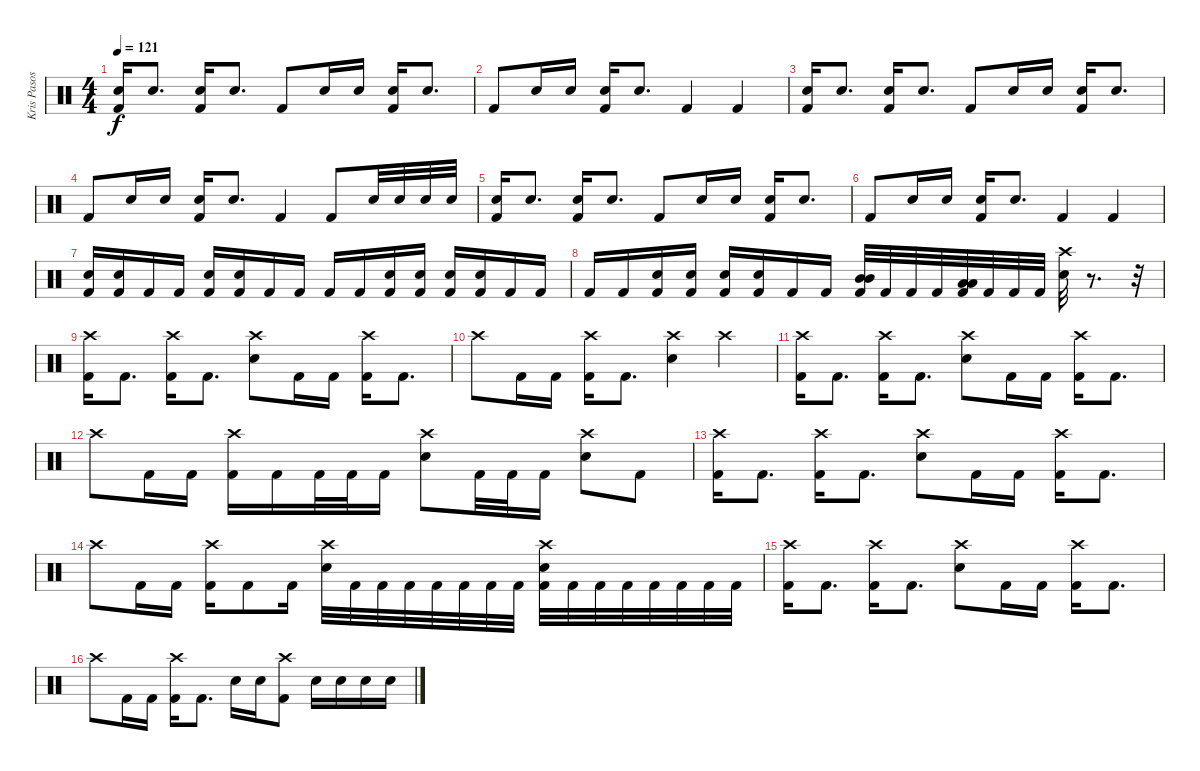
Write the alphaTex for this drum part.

\track ("Kris Pasos" "Kris Pasos") {instrument percussion}
\staff {score}
\articulation defaults
\ts (4 4)
\tempo 121
\clef neutral
\ks c
("Snare (hit) 2" "Kick (hit) 2").16{dy f} "Snare (hit) 2".8{d} ("Snare (hit) 2" "Kick (hit) 2").16 "Snare (hit) 2".8{d} "Kick (hit) 2".8 "Snare (hit) 2".16 "Snare (hit) 2".16 ("Snare (hit) 2" "Kick (hit) 2").16 "Snare (hit) 2".8{d} |
"Kick (hit) 2".8 "Snare (hit) 2".16 "Snare (hit) 2".16 ("Snare (hit) 2" "Kick (hit) 2").16 "Snare (hit) 2".8{d} "Kick (hit) 2".4 "Kick (hit) 2".4 |
("Snare (hit) 2" "Kick (hit) 2").16 "Snare (hit) 2".8{d} ("Snare (hit) 2" "Kick (hit) 2").16 "Snare (hit) 2".8{d} "Kick (hit) 2".8 "Snare (hit) 2".16 "Snare (hit) 2".16 ("Snare (hit) 2" "Kick (hit) 2").16 "Snare (hit) 2".8{d} |
"Kick (hit) 2".8 "Snare (hit) 2".16 "Snare (hit) 2".16 ("Snare (hit) 2" "Kick (hit) 2").16 "Snare (hit) 2".8{d} "Kick (hit) 2".4 "Kick (hit) 2".8 "Snare (hit) 2".32 "Snare (hit) 2".32 "Snare (hit) 2".32 "Snare (hit) 2".32 |
("Snare (hit) 2" "Kick (hit) 2").16 "Snare (hit) 2".8{d} ("Snare (hit) 2" "Kick (hit) 2").16 "Snare (hit) 2".8{d} "Kick (hit) 2".8 "Snare (hit) 2".16 "Snare (hit) 2".16 ("Snare (hit) 2" "Kick (hit) 2").16 "Snare (hit) 2".8{d} |
"Kick (hit) 2".8 "Snare (hit) 2".16 "Snare (hit) 2".16 ("Snare (hit) 2" "Kick (hit) 2").16 "Snare (hit) 2".8{d} "Kick (hit) 2".4 "Kick (hit) 2".4 |
("Snare (hit) 2" "Kick (hit) 2").16 ("Snare (hit) 2" "Kick (hit) 2").16 "Kick (hit) 2".16 "Kick (hit) 2".16 ("Snare (hit) 2" "Kick (hit) 2").16 ("Snare (hit) 2" "Kick (hit) 2").16 "Kick (hit) 2".16 "Kick (hit) 2".16 "Kick (hit) 2".16 "Kick (hit) 2".16 ("Snare (hit) 2" "Kick (hit) 2").16 ("Snare (hit) 2" "Kick (hit) 2").16 ("Snare (hit) 2" "Kick (hit) 2").16 ("Snare (hit) 2" "Kick (hit) 2").16 "Kick (hit) 2".16 "Kick (hit) 2".16 |
"Kick (hit) 2".16 "Kick (hit) 2".16 ("Snare (hit) 2" "Kick (hit) 2").16 ("Snare (hit) 2" "Kick (hit) 2").16 ("Snare (hit) 2" "Kick (hit) 2").16 ("Snare (hit) 2" "Kick (hit) 2").16 "Kick (hit) 2".16 "Kick (hit) 2".16 ("Mid Tom (hit)" "Mid Tom (hit)" "Kick (hit) 2").32 "Kick (hit) 2".32 "Kick (hit) 2".32 "Kick (hit) 2".32 ("Low Tom (hit)" "Low Tom (hit)" "Kick (hit) 2").32 "Kick (hit) 2".32 "Kick (hit) 2".32 "Kick (hit) 2".32 ("Crash high (hit)" "Snare (hit) 2").32 r.8{d} r.32 |
("Crash high (hit)" "Kick (hit) 2").16 "Kick (hit) 2".8{d} ("Crash high (hit)" "Kick (hit) 2").16 "Kick (hit) 2".8{d} ("Crash high (hit)" "Snare (hit) 2").8 "Kick (hit) 2".16 "Kick (hit) 2".16 ("Crash high (hit)" "Kick (hit) 2").16 "Kick (hit) 2".8{d} |
"Crash high (hit)".8 "Kick (hit) 2".16 "Kick (hit) 2".16 ("Crash high (hit)" "Kick (hit) 2").16 "Kick (hit) 2".8{d} ("Crash high (hit)" "Snare (hit) 2").4 "Crash high (hit)".4 |
("Crash high (hit)" "Kick (hit) 2").16 "Kick (hit) 2".8{d} ("Crash high (hit)" "Kick (hit) 2").16 "Kick (hit) 2".8{d} ("Crash high (hit)" "Snare (hit) 2").8 "Kick (hit) 2".16 "Kick (hit) 2".16 ("Crash high (hit)" "Kick (hit) 2").16 "Kick (hit) 2".8{d} |
"Crash high (hit)".8 "Kick (hit) 2".16 "Kick (hit) 2".16 ("Crash high (hit)" "Kick (hit) 2").16 "Kick (hit) 2".16 "Kick (hit) 2".32 "Kick (hit) 2".32 "Kick (hit) 2".16 ("Crash high (hit)" "Snare (hit) 2").8 "Kick (hit) 2".32 "Kick (hit) 2".32 "Kick (hit) 2".16 ("Crash high (hit)" "Snare (hit) 2").8 "Kick (hit) 2".8 |
("Crash high (hit)" "Kick (hit) 2").16 "Kick (hit) 2".8{d} ("Crash high (hit)" "Kick (hit) 2").16 "Kick (hit) 2".8{d} ("Crash high (hit)" "Snare (hit) 2").8 "Kick (hit) 2".16 "Kick (hit) 2".16 ("Crash high (hit)" "Kick (hit) 2").16 "Kick (hit) 2".8{d} |
"Crash high (hit)".8 "Kick (hit) 2".16 "Kick (hit) 2".16 ("Crash high (hit)" "Kick (hit) 2").16 "Kick (hit) 2".8 "Kick (hit) 2".16 ("Crash high (hit)" "Snare (hit) 2").32 "Kick (hit) 2".32 "Kick (hit) 2".32 "Kick (hit) 2".32 "Kick (hit) 2".32 "Kick (hit) 2".32 "Kick (hit) 2".32 "Kick (hit) 2".32 ("Crash high (hit)" "Snare (hit) 2" "Kick (hit) 2").32 "Kick (hit) 2".32 "Kick (hit) 2".32 "Kick (hit) 2".32 "Kick (hit) 2".32 "Kick (hit) 2".32 "Kick (hit) 2".32 "Kick (hit) 2".32 |
("Crash high (hit)" "Kick (hit) 2").16 "Kick (hit) 2".8{d} ("Crash high (hit)" "Kick (hit) 2").16 "Kick (hit) 2".8{d} ("Crash high (hit)" "Snare (hit) 2").8 "Kick (hit) 2".16 "Kick (hit) 2".16 ("Crash high (hit)" "Kick (hit) 2").16 "Kick (hit) 2".8{d} |
"Crash high (hit)".8 "Kick (hit) 2".16 "Kick (hit) 2".16 ("Crash high (hit)" "Kick (hit) 2").16 "Kick (hit) 2".8{d} "Snare (hit) 2".16 "Snare (hit) 2".16 ("Crash high (hit)" "Kick (hit) 2").8 "Snare (hit) 2".16 "Snare (hit) 2".16 "Snare (hit) 2".16 "Snare (hit) 2".16
